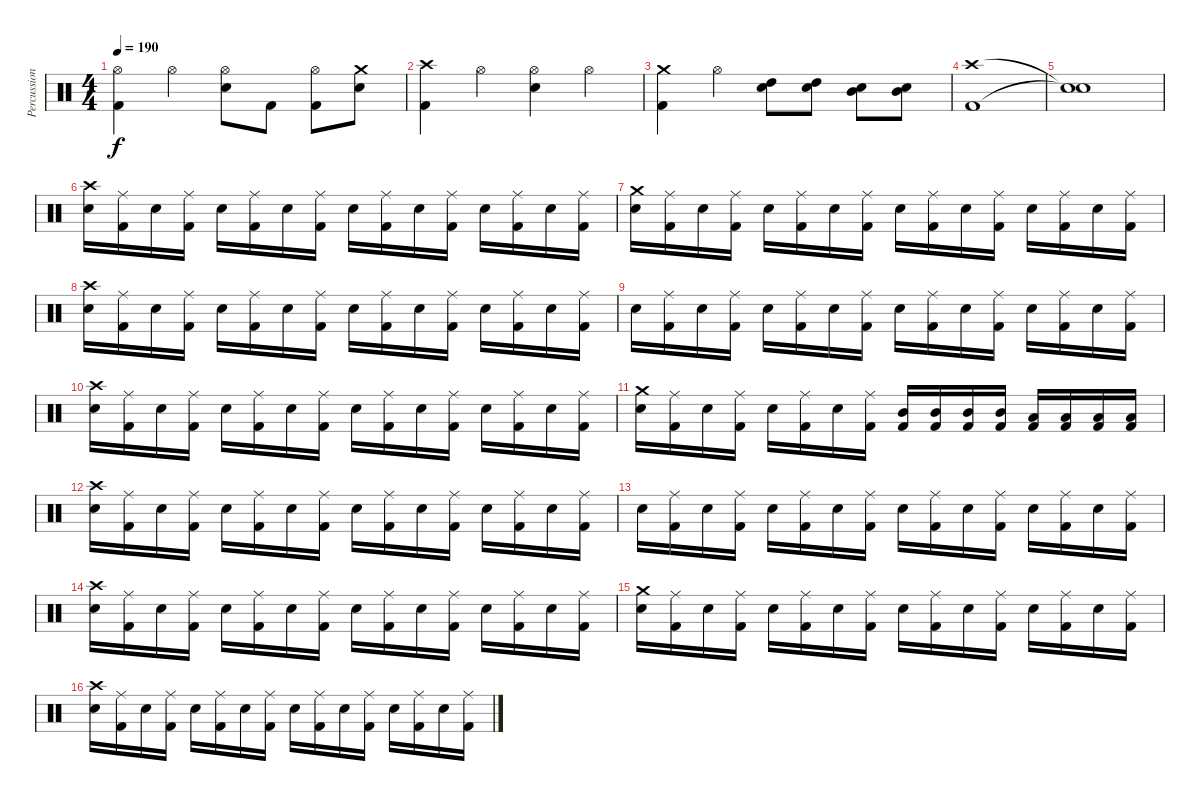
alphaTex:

\track ("Percussion" "Percussion") {instrument percussion}
\staff {score}
\articulation defaults
\ts (4 4)
\tempo 190
\clef neutral
\ks c
("Hi-Hat (open)" "Kick (hit) 2").4{dy f} "Hi-Hat (open)".4 ("Hi-Hat (open)" "Snare (hit) 2").8 "Kick (hit) 2".8 ("Hi-Hat (open)" "Kick (hit) 2").8 ("Crash medium (hit)" "Snare (hit) 2").8 |
("Crash high (hit)" "Kick (hit) 2").4 "Hi-Hat (open)".4 ("Hi-Hat (open)" "Snare (hit) 2").4 "Hi-Hat (open)".4 |
("Crash medium (hit)" "Kick (hit) 2").4 "Hi-Hat (open)".4 ("High Tom (hit)" "Snare (hit) 2").8 ("High Tom (hit)" "Snare (hit) 2").8 ("Mid Tom (hit)" "Snare (hit) 2").8 ("Mid Tom (hit)" "Snare (hit) 2").8 |
("Crash high (hit)" "Kick (hit) 2").1 |
("Snare (hit)"{t} "Snare (hit)"{t}).1 |
("Crash high (hit)" "Snare (hit) 2").16 ("Ride (middle)" "Kick (hit) 2").16 "Snare (hit) 2".16 ("Ride (middle)" "Kick (hit) 2").16 "Snare (hit) 2".16 ("Ride (middle)" "Kick (hit) 2").16 "Snare (hit) 2".16 ("Ride (middle)" "Kick (hit) 2").16 "Snare (hit) 2".16 ("Ride (middle)" "Kick (hit) 2").16 "Snare (hit) 2".16 ("Ride (middle)" "Kick (hit) 2").16 "Snare (hit) 2".16 ("Ride (middle)" "Kick (hit) 2").16 "Snare (hit) 2".16 ("Ride (middle)" "Kick (hit) 2").16 |
("Crash medium (hit)" "Snare (hit) 2").16 ("Ride (middle)" "Kick (hit) 2").16 "Snare (hit) 2".16 ("Ride (middle)" "Kick (hit) 2").16 "Snare (hit) 2".16 ("Ride (middle)" "Kick (hit) 2").16 "Snare (hit) 2".16 ("Ride (middle)" "Kick (hit) 2").16 "Snare (hit) 2".16 ("Ride (middle)" "Kick (hit) 2").16 "Snare (hit) 2".16 ("Ride (middle)" "Kick (hit) 2").16 "Snare (hit) 2".16 ("Ride (middle)" "Kick (hit) 2").16 "Snare (hit) 2".16 ("Ride (middle)" "Kick (hit) 2").16 |
("Crash high (hit)" "Snare (hit) 2").16 ("Ride (middle)" "Kick (hit) 2").16 "Snare (hit) 2".16 ("Ride (middle)" "Kick (hit) 2").16 "Snare (hit) 2".16 ("Ride (middle)" "Kick (hit) 2").16 "Snare (hit) 2".16 ("Ride (middle)" "Kick (hit) 2").16 "Snare (hit) 2".16 ("Ride (middle)" "Kick (hit) 2").16 "Snare (hit) 2".16 ("Ride (middle)" "Kick (hit) 2").16 "Snare (hit) 2".16 ("Ride (middle)" "Kick (hit) 2").16 "Snare (hit) 2".16 ("Ride (middle)" "Kick (hit) 2").16 |
"Snare (hit) 2".16 ("Ride (middle)" "Kick (hit) 2").16 "Snare (hit) 2".16 ("Ride (middle)" "Kick (hit) 2").16 "Snare (hit) 2".16 ("Ride (middle)" "Kick (hit) 2").16 "Snare (hit) 2".16 ("Ride (middle)" "Kick (hit) 2").16 "Snare (hit) 2".16 ("Ride (middle)" "Kick (hit) 2").16 "Snare (hit) 2".16 ("Ride (middle)" "Kick (hit) 2").16 "Snare (hit) 2".16 ("Ride (middle)" "Kick (hit) 2").16 "Snare (hit) 2".16 ("Ride (middle)" "Kick (hit) 2").16 |
("Crash high (hit)" "Snare (hit) 2").16 ("Ride (middle)" "Kick (hit) 2").16 "Snare (hit) 2".16 ("Ride (middle)" "Kick (hit) 2").16 "Snare (hit) 2".16 ("Ride (middle)" "Kick (hit) 2").16 "Snare (hit) 2".16 ("Ride (middle)" "Kick (hit) 2").16 "Snare (hit) 2".16 ("Ride (middle)" "Kick (hit) 2").16 "Snare (hit) 2".16 ("Ride (middle)" "Kick (hit) 2").16 "Snare (hit) 2".16 ("Ride (middle)" "Kick (hit) 2").16 "Snare (hit) 2".16 ("Ride (middle)" "Kick (hit) 2").16 |
("Crash medium (hit)" "Snare (hit) 2").16 ("Ride (middle)" "Kick (hit) 2").16 "Snare (hit) 2".16 ("Ride (middle)" "Kick (hit) 2").16 "Snare (hit) 2".16 ("Ride (middle)" "Kick (hit) 2").16 "Snare (hit) 2".16 ("Ride (middle)" "Kick (hit) 2").16 ("Mid Tom (hit)" "Kick (hit) 2").16 ("Mid Tom (hit)" "Kick (hit) 2").16 ("Mid Tom (hit)" "Kick (hit) 2").16 ("Mid Tom (hit)" "Kick (hit) 2").16 ("Low Tom (hit)" "Kick (hit) 2").16 ("Low Tom (hit)" "Kick (hit) 2").16 ("Low Tom (hit)" "Kick (hit) 2").16 ("Low Tom (hit)" "Kick (hit) 2").16 |
("Crash high (hit)" "Snare (hit) 2").16 ("Ride (middle)" "Kick (hit) 2").16 "Snare (hit) 2".16 ("Ride (middle)" "Kick (hit) 2").16 "Snare (hit) 2".16 ("Ride (middle)" "Kick (hit) 2").16 "Snare (hit) 2".16 ("Ride (middle)" "Kick (hit) 2").16 "Snare (hit) 2".16 ("Ride (middle)" "Kick (hit) 2").16 "Snare (hit) 2".16 ("Ride (middle)" "Kick (hit) 2").16 "Snare (hit) 2".16 ("Ride (middle)" "Kick (hit) 2").16 "Snare (hit) 2".16 ("Ride (middle)" "Kick (hit) 2").16 |
"Snare (hit) 2".16 ("Ride (middle)" "Kick (hit) 2").16 "Snare (hit) 2".16 ("Ride (middle)" "Kick (hit) 2").16 "Snare (hit) 2".16 ("Ride (middle)" "Kick (hit) 2").16 "Snare (hit) 2".16 ("Ride (middle)" "Kick (hit) 2").16 "Snare (hit) 2".16 ("Ride (middle)" "Kick (hit) 2").16 "Snare (hit) 2".16 ("Ride (middle)" "Kick (hit) 2").16 "Snare (hit) 2".16 ("Ride (middle)" "Kick (hit) 2").16 "Snare (hit) 2".16 ("Ride (middle)" "Kick (hit) 2").16 |
("Crash high (hit)" "Snare (hit) 2").16 ("Ride (middle)" "Kick (hit) 2").16 "Snare (hit) 2".16 ("Ride (middle)" "Kick (hit) 2").16 "Snare (hit) 2".16 ("Ride (middle)" "Kick (hit) 2").16 "Snare (hit) 2".16 ("Ride (middle)" "Kick (hit) 2").16 "Snare (hit) 2".16 ("Ride (middle)" "Kick (hit) 2").16 "Snare (hit) 2".16 ("Ride (middle)" "Kick (hit) 2").16 "Snare (hit) 2".16 ("Ride (middle)" "Kick (hit) 2").16 "Snare (hit) 2".16 ("Ride (middle)" "Kick (hit) 2").16 |
("Crash medium (hit)" "Snare (hit) 2").16 ("Ride (middle)" "Kick (hit) 2").16 "Snare (hit) 2".16 ("Ride (middle)" "Kick (hit) 2").16 "Snare (hit) 2".16 ("Ride (middle)" "Kick (hit) 2").16 "Snare (hit) 2".16 ("Ride (middle)" "Kick (hit) 2").16 "Snare (hit) 2".16 ("Ride (middle)" "Kick (hit) 2").16 "Snare (hit) 2".16 ("Ride (middle)" "Kick (hit) 2").16 "Snare (hit) 2".16 ("Ride (middle)" "Kick (hit) 2").16 "Snare (hit) 2".16 ("Ride (middle)" "Kick (hit) 2").16 |
("Crash high (hit)" "Snare (hit) 2").16 ("Ride (middle)" "Kick (hit) 2").16 "Snare (hit) 2".16 ("Ride (middle)" "Kick (hit) 2").16 "Snare (hit) 2".16 ("Ride (middle)" "Kick (hit) 2").16 "Snare (hit) 2".16 ("Ride (middle)" "Kick (hit) 2").16 "Snare (hit) 2".16 ("Ride (middle)" "Kick (hit) 2").16 "Snare (hit) 2".16 ("Ride (middle)" "Kick (hit) 2").16 "Snare (hit) 2".16 ("Ride (middle)" "Kick (hit) 2").16 "Snare (hit) 2".16 ("Ride (middle)" "Kick (hit) 2").16
